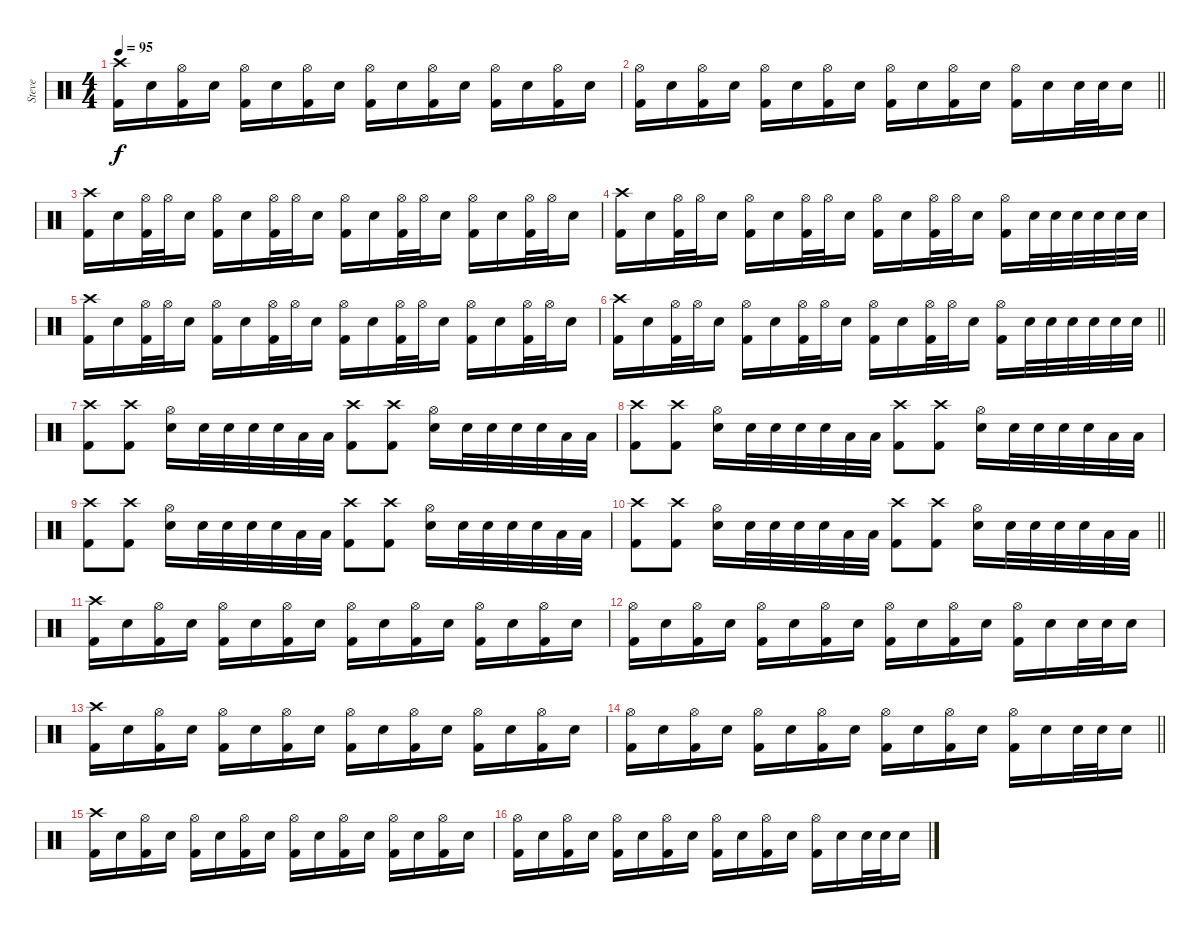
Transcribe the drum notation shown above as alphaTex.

\track ("Steve" "Steve") {instrument percussion}
\staff {score}
\articulation defaults
\ts (4 4)
\tempo 95
\clef neutral
\ks c
("Kick (hit) 2" "Crash high (hit)").16{dy f} "Snare (hit) 2".16 ("Kick (hit) 2" "Hi-Hat (open)").16 "Snare (hit) 2".16 ("Kick (hit) 2" "Hi-Hat (open)").16 "Snare (hit) 2".16 ("Kick (hit) 2" "Hi-Hat (open)").16 "Snare (hit) 2".16 ("Kick (hit) 2" "Hi-Hat (open)").16 "Snare (hit) 2".16 ("Kick (hit) 2" "Hi-Hat (open)").16 "Snare (hit) 2".16 ("Kick (hit) 2" "Hi-Hat (open)").16 "Snare (hit) 2".16 ("Kick (hit) 2" "Hi-Hat (open)").16 "Snare (hit) 2".16 |
\barLineRight lightlight
("Kick (hit) 2" "Hi-Hat (open)").16 "Snare (hit) 2".16 ("Kick (hit) 2" "Hi-Hat (open)").16 "Snare (hit) 2".16 ("Kick (hit) 2" "Hi-Hat (open)").16 "Snare (hit) 2".16 ("Kick (hit) 2" "Hi-Hat (open)").16 "Snare (hit) 2".16 ("Kick (hit) 2" "Hi-Hat (open)").16 "Snare (hit) 2".16 ("Kick (hit) 2" "Hi-Hat (open)").16 "Snare (hit) 2".16 ("Kick (hit) 2" "Hi-Hat (open)").16 "Snare (hit) 2".16 "Snare (hit) 2".32 "Snare (hit) 2".32 "Snare (hit) 2".16 |
("Kick (hit) 2" "Crash high (hit)").16 "Snare (hit) 2".16 ("Kick (hit) 2" "Hi-Hat (open)").32 "Hi-Hat (open)".32 "Snare (hit) 2".16 ("Kick (hit) 2" "Hi-Hat (open)").16 "Snare (hit) 2".16 ("Kick (hit) 2" "Hi-Hat (open)").32 "Hi-Hat (open)".32 "Snare (hit) 2".16 ("Kick (hit) 2" "Hi-Hat (open)").16 "Snare (hit) 2".16 ("Kick (hit) 2" "Hi-Hat (open)").32 "Hi-Hat (open)".32 "Snare (hit) 2".16 ("Kick (hit) 2" "Hi-Hat (open)").16 "Snare (hit) 2".16 ("Kick (hit) 2" "Hi-Hat (open)").32 "Hi-Hat (open)".32 "Snare (hit) 2".16 |
("Kick (hit) 2" "Crash high (hit)").16 "Snare (hit) 2".16 ("Kick (hit) 2" "Hi-Hat (open)").32 "Hi-Hat (open)".32 "Snare (hit) 2".16 ("Kick (hit) 2" "Hi-Hat (open)").16 "Snare (hit) 2".16 ("Kick (hit) 2" "Hi-Hat (open)").32 "Hi-Hat (open)".32 "Snare (hit) 2".16 ("Kick (hit) 2" "Hi-Hat (open)").16 "Snare (hit) 2".16 ("Kick (hit) 2" "Hi-Hat (open)").32 "Hi-Hat (open)".32 "Snare (hit) 2".16 ("Kick (hit) 2" "Hi-Hat (open)").16 "Snare (hit) 2".32 "Snare (hit) 2".32 "Snare (hit) 2".32 "Snare (hit) 2".32 "Snare (hit) 2".32 "Snare (hit) 2".32 |
("Kick (hit) 2" "Crash high (hit)").16 "Snare (hit) 2".16 ("Kick (hit) 2" "Hi-Hat (open)").32 "Hi-Hat (open)".32 "Snare (hit) 2".16 ("Kick (hit) 2" "Hi-Hat (open)").16 "Snare (hit) 2".16 ("Kick (hit) 2" "Hi-Hat (open)").32 "Hi-Hat (open)".32 "Snare (hit) 2".16 ("Kick (hit) 2" "Hi-Hat (open)").16 "Snare (hit) 2".16 ("Kick (hit) 2" "Hi-Hat (open)").32 "Hi-Hat (open)".32 "Snare (hit) 2".16 ("Kick (hit) 2" "Hi-Hat (open)").16 "Snare (hit) 2".16 ("Kick (hit) 2" "Hi-Hat (open)").32 "Hi-Hat (open)".32 "Snare (hit) 2".16 |
\barLineRight lightlight
("Kick (hit) 2" "Crash high (hit)").16 "Snare (hit) 2".16 ("Kick (hit) 2" "Hi-Hat (open)").32 "Hi-Hat (open)".32 "Snare (hit) 2".16 ("Kick (hit) 2" "Hi-Hat (open)").16 "Snare (hit) 2".16 ("Kick (hit) 2" "Hi-Hat (open)").32 "Hi-Hat (open)".32 "Snare (hit) 2".16 ("Kick (hit) 2" "Hi-Hat (open)").16 "Snare (hit) 2".16 ("Kick (hit) 2" "Hi-Hat (open)").32 "Hi-Hat (open)".32 "Snare (hit) 2".16 ("Kick (hit) 2" "Hi-Hat (open)").16 "Snare (hit) 2".32 "Snare (hit) 2".32 "Snare (hit) 2".32 "Snare (hit) 2".32 "Snare (hit) 2".32 "Snare (hit) 2".32 |
("Kick (hit) 2" "Crash high (hit)").8 ("Kick (hit) 2" "Crash high (hit)").8 ("Snare (hit) 2" "Hi-Hat (open)").16 "Snare (hit) 2".32 "Snare (hit) 2".32 "Snare (hit) 2".32 "Snare (hit) 2".32 "Low Floor Tom (hit)".32 "Low Floor Tom (hit)".32 ("Kick (hit) 2" "Crash high (hit)").8 ("Kick (hit) 2" "Crash high (hit)").8 ("Snare (hit) 2" "Hi-Hat (open)").16 "Snare (hit) 2".32 "Snare (hit) 2".32 "Snare (hit) 2".32 "Snare (hit) 2".32 "Low Floor Tom (hit)".32 "Low Floor Tom (hit)".32 |
("Kick (hit) 2" "Crash high (hit)").8 ("Kick (hit) 2" "Crash high (hit)").8 ("Snare (hit) 2" "Hi-Hat (open)").16 "Snare (hit) 2".32 "Snare (hit) 2".32 "Snare (hit) 2".32 "Snare (hit) 2".32 "Low Floor Tom (hit)".32 "Low Floor Tom (hit)".32 ("Kick (hit) 2" "Crash high (hit)").8 ("Kick (hit) 2" "Crash high (hit)").8 ("Snare (hit) 2" "Hi-Hat (open)").16 "Snare (hit) 2".32 "Snare (hit) 2".32 "Snare (hit) 2".32 "Snare (hit) 2".32 "Low Floor Tom (hit)".32 "Low Floor Tom (hit)".32 |
("Kick (hit) 2" "Crash high (hit)").8 ("Kick (hit) 2" "Crash high (hit)").8 ("Snare (hit) 2" "Hi-Hat (open)").16 "Snare (hit) 2".32 "Snare (hit) 2".32 "Snare (hit) 2".32 "Snare (hit) 2".32 "Low Floor Tom (hit)".32 "Low Floor Tom (hit)".32 ("Kick (hit) 2" "Crash high (hit)").8 ("Kick (hit) 2" "Crash high (hit)").8 ("Snare (hit) 2" "Hi-Hat (open)").16 "Snare (hit) 2".32 "Snare (hit) 2".32 "Snare (hit) 2".32 "Snare (hit) 2".32 "Low Floor Tom (hit)".32 "Low Floor Tom (hit)".32 |
\barLineRight lightlight
("Kick (hit) 2" "Crash high (hit)").8 ("Kick (hit) 2" "Crash high (hit)").8 ("Snare (hit) 2" "Hi-Hat (open)").16 "Snare (hit) 2".32 "Snare (hit) 2".32 "Snare (hit) 2".32 "Snare (hit) 2".32 "Low Floor Tom (hit)".32 "Low Floor Tom (hit)".32 ("Kick (hit) 2" "Crash high (hit)").8 ("Kick (hit) 2" "Crash high (hit)").8 ("Snare (hit) 2" "Hi-Hat (open)").16 "Snare (hit) 2".32 "Snare (hit) 2".32 "Snare (hit) 2".32 "Snare (hit) 2".32 "Low Floor Tom (hit)".32 "Low Floor Tom (hit)".32 |
("Kick (hit) 2" "Crash high (hit)").16 "Snare (hit) 2".16 ("Kick (hit) 2" "Hi-Hat (open)").16 "Snare (hit) 2".16 ("Kick (hit) 2" "Hi-Hat (open)").16 "Snare (hit) 2".16 ("Kick (hit) 2" "Hi-Hat (open)").16 "Snare (hit) 2".16 ("Kick (hit) 2" "Hi-Hat (open)").16 "Snare (hit) 2".16 ("Kick (hit) 2" "Hi-Hat (open)").16 "Snare (hit) 2".16 ("Kick (hit) 2" "Hi-Hat (open)").16 "Snare (hit) 2".16 ("Kick (hit) 2" "Hi-Hat (open)").16 "Snare (hit) 2".16 |
("Kick (hit) 2" "Hi-Hat (open)").16 "Snare (hit) 2".16 ("Kick (hit) 2" "Hi-Hat (open)").16 "Snare (hit) 2".16 ("Kick (hit) 2" "Hi-Hat (open)").16 "Snare (hit) 2".16 ("Kick (hit) 2" "Hi-Hat (open)").16 "Snare (hit) 2".16 ("Kick (hit) 2" "Hi-Hat (open)").16 "Snare (hit) 2".16 ("Kick (hit) 2" "Hi-Hat (open)").16 "Snare (hit) 2".16 ("Kick (hit) 2" "Hi-Hat (open)").16 "Snare (hit) 2".16 "Snare (hit) 2".32 "Snare (hit) 2".32 "Snare (hit) 2".16 |
("Kick (hit) 2" "Crash high (hit)").16 "Snare (hit) 2".16 ("Kick (hit) 2" "Hi-Hat (open)").16 "Snare (hit) 2".16 ("Kick (hit) 2" "Hi-Hat (open)").16 "Snare (hit) 2".16 ("Kick (hit) 2" "Hi-Hat (open)").16 "Snare (hit) 2".16 ("Kick (hit) 2" "Hi-Hat (open)").16 "Snare (hit) 2".16 ("Kick (hit) 2" "Hi-Hat (open)").16 "Snare (hit) 2".16 ("Kick (hit) 2" "Hi-Hat (open)").16 "Snare (hit) 2".16 ("Kick (hit) 2" "Hi-Hat (open)").16 "Snare (hit) 2".16 |
\barLineRight lightlight
("Kick (hit) 2" "Hi-Hat (open)").16 "Snare (hit) 2".16 ("Kick (hit) 2" "Hi-Hat (open)").16 "Snare (hit) 2".16 ("Kick (hit) 2" "Hi-Hat (open)").16 "Snare (hit) 2".16 ("Kick (hit) 2" "Hi-Hat (open)").16 "Snare (hit) 2".16 ("Kick (hit) 2" "Hi-Hat (open)").16 "Snare (hit) 2".16 ("Kick (hit) 2" "Hi-Hat (open)").16 "Snare (hit) 2".16 ("Kick (hit) 2" "Hi-Hat (open)").16 "Snare (hit) 2".16 "Snare (hit) 2".32 "Snare (hit) 2".32 "Snare (hit) 2".16 |
("Kick (hit) 2" "Crash high (hit)").16 "Snare (hit) 2".16 ("Kick (hit) 2" "Hi-Hat (open)").16 "Snare (hit) 2".16 ("Kick (hit) 2" "Hi-Hat (open)").16 "Snare (hit) 2".16 ("Kick (hit) 2" "Hi-Hat (open)").16 "Snare (hit) 2".16 ("Kick (hit) 2" "Hi-Hat (open)").16 "Snare (hit) 2".16 ("Kick (hit) 2" "Hi-Hat (open)").16 "Snare (hit) 2".16 ("Kick (hit) 2" "Hi-Hat (open)").16 "Snare (hit) 2".16 ("Kick (hit) 2" "Hi-Hat (open)").16 "Snare (hit) 2".16 |
("Kick (hit) 2" "Hi-Hat (open)").16 "Snare (hit) 2".16 ("Kick (hit) 2" "Hi-Hat (open)").16 "Snare (hit) 2".16 ("Kick (hit) 2" "Hi-Hat (open)").16 "Snare (hit) 2".16 ("Kick (hit) 2" "Hi-Hat (open)").16 "Snare (hit) 2".16 ("Kick (hit) 2" "Hi-Hat (open)").16 "Snare (hit) 2".16 ("Kick (hit) 2" "Hi-Hat (open)").16 "Snare (hit) 2".16 ("Kick (hit) 2" "Hi-Hat (open)").16 "Snare (hit) 2".16 "Snare (hit) 2".32 "Snare (hit) 2".32 "Snare (hit) 2".16
